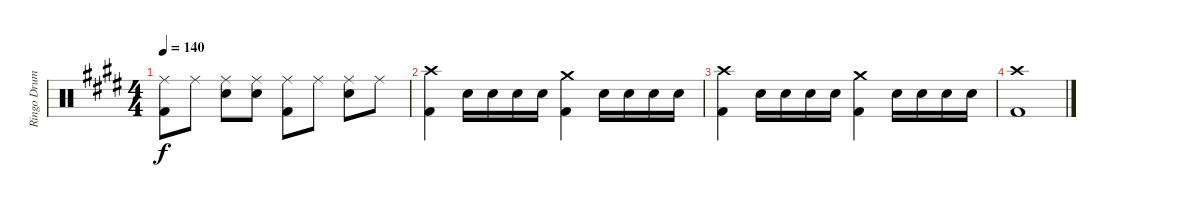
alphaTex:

\track ("Ringo Drums" "Ringo Drum") {instrument percussion}
\staff {score}
\articulation defaults
\ts (4 4)
\tempo 140
\clef neutral
\ks e
("Ride (middle)" "Kick (hit) 2").8{dy f} "Ride (middle)".8 ("Ride (middle)" "Snare (hit) 2").8 ("Ride (middle)" "Snare (hit) 2").8 ("Ride (middle)" "Kick (hit) 2").8 "Ride (middle)".8 ("Ride (middle)" "Snare (hit) 2").8 "Ride (middle)".8 |
("Crash high (hit)" "Kick (hit) 2").4 "Snare (hit) 2".16 "Electric Snare (hit)".16 "Snare (hit) 2".16 "Electric Snare (hit)".16 ("Crash medium (hit)" "Kick (hit) 2").4 "Snare (hit) 2".16 "Electric Snare (hit)".16 "Snare (hit) 2".16 "Electric Snare (hit)".16 |
("Crash high (hit)" "Kick (hit) 2").4 "Snare (hit) 2".16 "Electric Snare (hit)".16 "Snare (hit) 2".16 "Electric Snare (hit)".16 ("Crash medium (hit)" "Kick (hit) 2").4 "Snare (hit) 2".16 "Electric Snare (hit)".16 "Snare (hit) 2".16 "Electric Snare (hit)".16 |
("Crash high (hit)" "Kick (hit) 2").1
